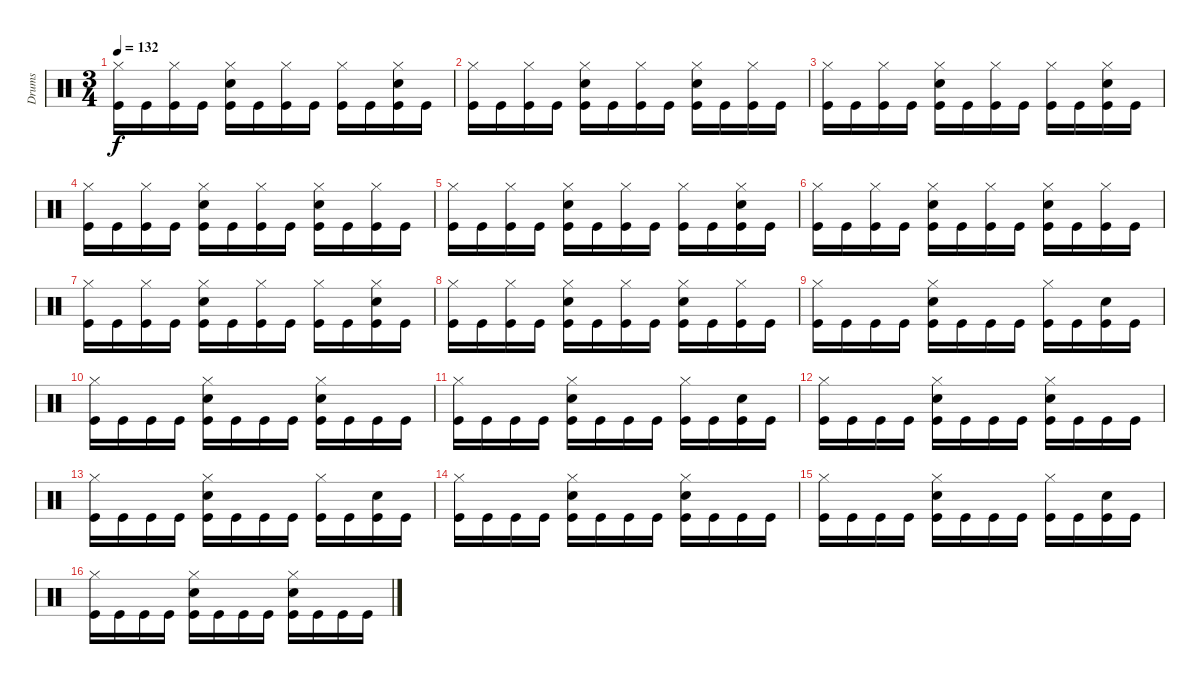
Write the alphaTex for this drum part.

\track ("Drums" "Drums") {instrument percussion}
\staff {score}
\articulation defaults
\ts (3 4)
\tempo 132
\clef neutral
\ks c
("Hi-Hat (closed)" "Kick (hit)").16{dy f} "Kick (hit)".16 ("Hi-Hat (closed)" "Kick (hit)").16 "Kick (hit)".16 ("Hi-Hat (closed)" "Kick (hit)" "Snare (hit) 2").16 "Kick (hit)".16 ("Hi-Hat (closed)" "Kick (hit)").16 "Kick (hit)".16 ("Hi-Hat (closed)" "Kick (hit)").16 "Kick (hit)".16 ("Hi-Hat (closed)" "Kick (hit)" "Snare (hit) 2").16 "Kick (hit)".16 |
("Hi-Hat (closed)" "Kick (hit)").16 "Kick (hit)".16 ("Hi-Hat (closed)" "Kick (hit)").16 "Kick (hit)".16 ("Hi-Hat (closed)" "Kick (hit)" "Snare (hit) 2").16 "Kick (hit)".16 ("Hi-Hat (closed)" "Kick (hit)").16 "Kick (hit)".16 ("Hi-Hat (closed)" "Kick (hit)" "Snare (hit) 2").16 "Kick (hit)".16 ("Hi-Hat (closed)" "Kick (hit)").16 "Kick (hit)".16 |
("Hi-Hat (closed)" "Kick (hit)").16 "Kick (hit)".16 ("Hi-Hat (closed)" "Kick (hit)").16 "Kick (hit)".16 ("Hi-Hat (closed)" "Kick (hit)" "Snare (hit) 2").16 "Kick (hit)".16 ("Hi-Hat (closed)" "Kick (hit)").16 "Kick (hit)".16 ("Hi-Hat (closed)" "Kick (hit)").16 "Kick (hit)".16 ("Hi-Hat (closed)" "Kick (hit)" "Snare (hit) 2").16 "Kick (hit)".16 |
("Hi-Hat (closed)" "Kick (hit)").16 "Kick (hit)".16 ("Hi-Hat (closed)" "Kick (hit)").16 "Kick (hit)".16 ("Hi-Hat (closed)" "Kick (hit)" "Snare (hit) 2").16 "Kick (hit)".16 ("Hi-Hat (closed)" "Kick (hit)").16 "Kick (hit)".16 ("Hi-Hat (closed)" "Kick (hit)" "Snare (hit) 2").16 "Kick (hit)".16 ("Hi-Hat (closed)" "Kick (hit)").16 "Kick (hit)".16 |
("Hi-Hat (closed)" "Kick (hit)").16 "Kick (hit)".16 ("Hi-Hat (closed)" "Kick (hit)").16 "Kick (hit)".16 ("Hi-Hat (closed)" "Kick (hit)" "Snare (hit) 2").16 "Kick (hit)".16 ("Hi-Hat (closed)" "Kick (hit)").16 "Kick (hit)".16 ("Hi-Hat (closed)" "Kick (hit)").16 "Kick (hit)".16 ("Hi-Hat (closed)" "Kick (hit)" "Snare (hit) 2").16 "Kick (hit)".16 |
("Hi-Hat (closed)" "Kick (hit)").16 "Kick (hit)".16 ("Hi-Hat (closed)" "Kick (hit)").16 "Kick (hit)".16 ("Hi-Hat (closed)" "Kick (hit)" "Snare (hit) 2").16 "Kick (hit)".16 ("Hi-Hat (closed)" "Kick (hit)").16 "Kick (hit)".16 ("Hi-Hat (closed)" "Kick (hit)" "Snare (hit) 2").16 "Kick (hit)".16 ("Hi-Hat (closed)" "Kick (hit)").16 "Kick (hit)".16 |
("Hi-Hat (closed)" "Kick (hit)").16 "Kick (hit)".16 ("Hi-Hat (closed)" "Kick (hit)").16 "Kick (hit)".16 ("Hi-Hat (closed)" "Kick (hit)" "Snare (hit) 2").16 "Kick (hit)".16 ("Hi-Hat (closed)" "Kick (hit)").16 "Kick (hit)".16 ("Hi-Hat (closed)" "Kick (hit)").16 "Kick (hit)".16 ("Hi-Hat (closed)" "Kick (hit)" "Snare (hit) 2").16 "Kick (hit)".16 |
("Hi-Hat (closed)" "Kick (hit)").16 "Kick (hit)".16 ("Hi-Hat (closed)" "Kick (hit)").16 "Kick (hit)".16 ("Hi-Hat (closed)" "Kick (hit)" "Snare (hit) 2").16 "Kick (hit)".16 ("Hi-Hat (closed)" "Kick (hit)").16 "Kick (hit)".16 ("Hi-Hat (closed)" "Kick (hit)" "Snare (hit) 2").16 "Kick (hit)".16 ("Hi-Hat (closed)" "Kick (hit)").16 "Kick (hit)".16 |
("Hi-Hat (closed)" "Kick (hit)").16 "Kick (hit)".16 "Kick (hit)".16 "Kick (hit)".16 ("Hi-Hat (closed)" "Kick (hit)" "Snare (hit) 2").16 "Kick (hit)".16 "Kick (hit)".16 "Kick (hit)".16 ("Hi-Hat (closed)" "Kick (hit)").16 "Kick (hit)".16 ("Kick (hit)" "Snare (hit) 2").16 "Kick (hit)".16 |
("Hi-Hat (closed)" "Kick (hit)").16 "Kick (hit)".16 "Kick (hit)".16 "Kick (hit)".16 ("Hi-Hat (closed)" "Kick (hit)" "Snare (hit) 2").16 "Kick (hit)".16 "Kick (hit)".16 "Kick (hit)".16 ("Hi-Hat (closed)" "Kick (hit)" "Snare (hit) 2").16 "Kick (hit)".16 "Kick (hit)".16 "Kick (hit)".16 |
("Hi-Hat (closed)" "Kick (hit)").16 "Kick (hit)".16 "Kick (hit)".16 "Kick (hit)".16 ("Hi-Hat (closed)" "Kick (hit)" "Snare (hit) 2").16 "Kick (hit)".16 "Kick (hit)".16 "Kick (hit)".16 ("Hi-Hat (closed)" "Kick (hit)").16 "Kick (hit)".16 ("Kick (hit)" "Snare (hit) 2").16 "Kick (hit)".16 |
("Hi-Hat (closed)" "Kick (hit)").16 "Kick (hit)".16 "Kick (hit)".16 "Kick (hit)".16 ("Hi-Hat (closed)" "Kick (hit)" "Snare (hit) 2").16 "Kick (hit)".16 "Kick (hit)".16 "Kick (hit)".16 ("Hi-Hat (closed)" "Kick (hit)" "Snare (hit) 2").16 "Kick (hit)".16 "Kick (hit)".16 "Kick (hit)".16 |
("Hi-Hat (closed)" "Kick (hit)").16 "Kick (hit)".16 "Kick (hit)".16 "Kick (hit)".16 ("Hi-Hat (closed)" "Kick (hit)" "Snare (hit) 2").16 "Kick (hit)".16 "Kick (hit)".16 "Kick (hit)".16 ("Hi-Hat (closed)" "Kick (hit)").16 "Kick (hit)".16 ("Kick (hit)" "Snare (hit) 2").16 "Kick (hit)".16 |
("Hi-Hat (closed)" "Kick (hit)").16 "Kick (hit)".16 "Kick (hit)".16 "Kick (hit)".16 ("Hi-Hat (closed)" "Kick (hit)" "Snare (hit) 2").16 "Kick (hit)".16 "Kick (hit)".16 "Kick (hit)".16 ("Hi-Hat (closed)" "Kick (hit)" "Snare (hit) 2").16 "Kick (hit)".16 "Kick (hit)".16 "Kick (hit)".16 |
("Hi-Hat (closed)" "Kick (hit)").16 "Kick (hit)".16 "Kick (hit)".16 "Kick (hit)".16 ("Hi-Hat (closed)" "Kick (hit)" "Snare (hit) 2").16 "Kick (hit)".16 "Kick (hit)".16 "Kick (hit)".16 ("Hi-Hat (closed)" "Kick (hit)").16 "Kick (hit)".16 ("Kick (hit)" "Snare (hit) 2").16 "Kick (hit)".16 |
("Hi-Hat (closed)" "Kick (hit)").16 "Kick (hit)".16 "Kick (hit)".16 "Kick (hit)".16 ("Hi-Hat (closed)" "Kick (hit)" "Snare (hit) 2").16 "Kick (hit)".16 "Kick (hit)".16 "Kick (hit)".16 ("Hi-Hat (closed)" "Kick (hit)" "Snare (hit) 2").16 "Kick (hit)".16 "Kick (hit)".16 "Kick (hit)".16
